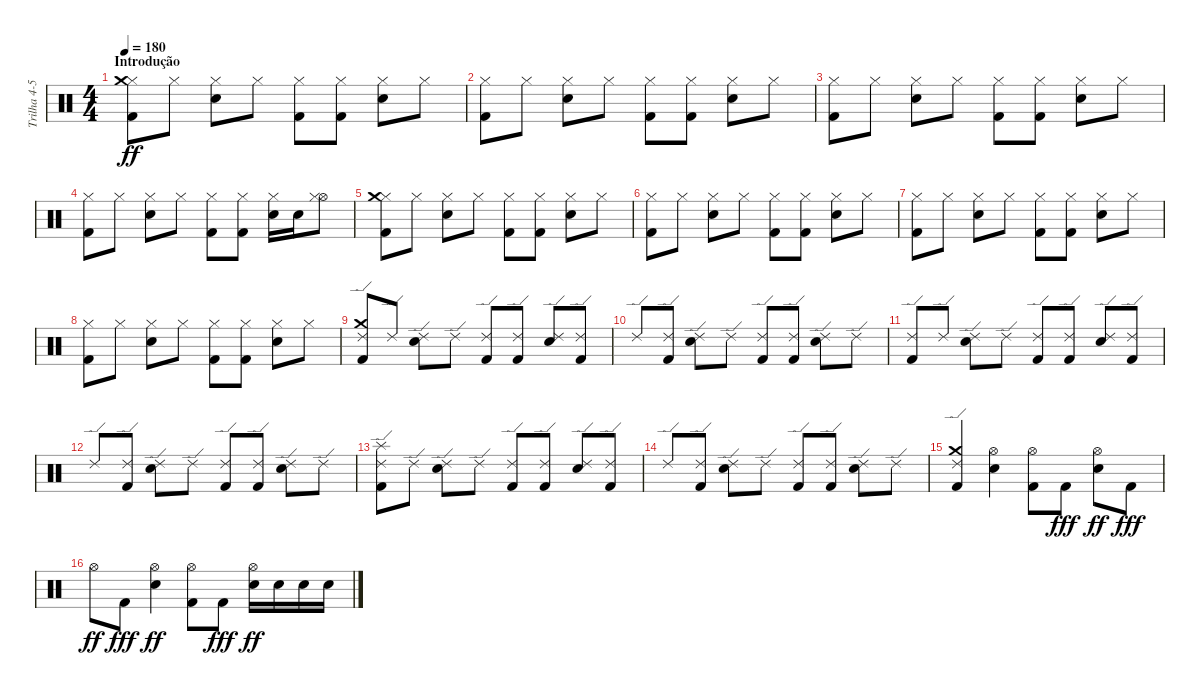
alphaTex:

\track ("Trilha 4-5" "Trilha 4-5") {instrument percussion}
\staff {score}
\articulation defaults
\ts (4 4)
\section ("" "Introdução")
\tempo 180
\clef neutral
\ks c
("Kick (hit) 2" "Hi-Hat (closed)" "Crash medium (hit)").8{dy ff} "Hi-Hat (closed)".8 ("Snare (hit) 2" "Hi-Hat (closed)").8 "Hi-Hat (closed)".8 ("Kick (hit) 2" "Hi-Hat (closed)").8 ("Kick (hit) 2" "Hi-Hat (closed)").8 ("Snare (hit) 2" "Hi-Hat (closed)").8 "Hi-Hat (closed)".8 |
("Kick (hit) 2" "Hi-Hat (closed)").8 "Hi-Hat (closed)".8 ("Snare (hit) 2" "Hi-Hat (closed)").8 "Hi-Hat (closed)".8 ("Kick (hit) 2" "Hi-Hat (closed)").8 ("Kick (hit) 2" "Hi-Hat (closed)").8 ("Snare (hit) 2" "Hi-Hat (closed)").8 "Hi-Hat (closed)".8 |
("Kick (hit) 2" "Hi-Hat (closed)").8 "Hi-Hat (closed)".8 ("Snare (hit) 2" "Hi-Hat (closed)").8 "Hi-Hat (closed)".8 ("Kick (hit) 2" "Hi-Hat (closed)").8 ("Kick (hit) 2" "Hi-Hat (closed)").8 ("Snare (hit) 2" "Hi-Hat (closed)").8 "Hi-Hat (closed)".8 |
("Kick (hit) 2" "Hi-Hat (closed)").8 "Hi-Hat (closed)".8 ("Snare (hit) 2" "Hi-Hat (closed)").8 "Hi-Hat (closed)".8 ("Kick (hit) 2" "Hi-Hat (closed)").8 ("Kick (hit) 2" "Hi-Hat (closed)").8 ("Snare (hit) 2" "Hi-Hat (closed)").16 "Snare (hit) 2".16 ("Hi-Hat (open)" "Hi-Hat (closed)").8 |
("Kick (hit) 2" "Hi-Hat (closed)" "Crash medium (hit)").8 "Hi-Hat (closed)".8 ("Snare (hit) 2" "Hi-Hat (closed)").8 "Hi-Hat (closed)".8 ("Kick (hit) 2" "Hi-Hat (closed)").8 ("Kick (hit) 2" "Hi-Hat (closed)").8 ("Snare (hit) 2" "Hi-Hat (closed)").8 "Hi-Hat (closed)".8 |
("Kick (hit) 2" "Hi-Hat (closed)").8 "Hi-Hat (closed)".8 ("Snare (hit) 2" "Hi-Hat (closed)").8 "Hi-Hat (closed)".8 ("Kick (hit) 2" "Hi-Hat (closed)").8 ("Kick (hit) 2" "Hi-Hat (closed)").8 ("Snare (hit) 2" "Hi-Hat (closed)").8 "Hi-Hat (closed)".8 |
("Kick (hit) 2" "Hi-Hat (closed)").8 "Hi-Hat (closed)".8 ("Snare (hit) 2" "Hi-Hat (closed)").8 "Hi-Hat (closed)".8 ("Kick (hit) 2" "Hi-Hat (closed)").8 ("Kick (hit) 2" "Hi-Hat (closed)").8 ("Snare (hit) 2" "Hi-Hat (closed)").8 "Hi-Hat (closed)".8 |
("Kick (hit) 2" "Hi-Hat (closed)").8 "Hi-Hat (closed)".8 ("Snare (hit) 2" "Hi-Hat (closed)").8 "Hi-Hat (closed)".8 ("Kick (hit) 2" "Hi-Hat (closed)").8 ("Kick (hit) 2" "Hi-Hat (closed)").8 ("Snare (hit) 2" "Hi-Hat (closed)").8 "Hi-Hat (closed)".8 |
("Kick (hit) 2" "Crash medium (hit)" "Ride (edge) 2").8 "Ride (edge) 2".8 ("Snare (hit) 2" "Ride (edge) 2").8 "Ride (edge) 2".8 ("Kick (hit) 2" "Ride (edge) 2").8 ("Kick (hit) 2" "Ride (edge) 2").8 ("Snare (hit) 2" "Ride (edge) 2").8 ("Kick (hit) 2" "Ride (edge) 2").8 |
"Ride (edge) 2".8 ("Kick (hit) 2" "Ride (edge) 2").8 ("Snare (hit) 2" "Ride (edge) 2").8 "Ride (edge) 2".8 ("Kick (hit) 2" "Ride (edge) 2").8 ("Kick (hit) 2" "Ride (edge) 2").8 ("Snare (hit) 2" "Ride (edge) 2").8 "Ride (edge) 2".8 |
("Kick (hit) 2" "Ride (edge) 2").8 "Ride (edge) 2".8 ("Snare (hit) 2" "Ride (edge) 2").8 "Ride (edge) 2".8 ("Kick (hit) 2" "Ride (edge) 2").8 ("Kick (hit) 2" "Ride (edge) 2").8 ("Snare (hit) 2" "Ride (edge) 2").8 ("Kick (hit) 2" "Ride (edge) 2").8 |
"Ride (edge) 2".8 ("Kick (hit) 2" "Ride (edge) 2").8 ("Snare (hit) 2" "Ride (edge) 2").8 "Ride (edge) 2".8 ("Kick (hit) 2" "Ride (edge) 2").8 ("Kick (hit) 2" "Ride (edge) 2").8 ("Snare (hit) 2" "Ride (edge) 2").8 "Ride (edge) 2".8 |
("Kick (hit) 2" "Splash (hit)" "Ride (edge) 2").8 "Ride (edge) 2".8 ("Snare (hit) 2" "Ride (edge) 2").8 "Ride (edge) 2".8 ("Kick (hit) 2" "Ride (edge) 2").8 ("Kick (hit) 2" "Ride (edge) 2").8 ("Snare (hit) 2" "Ride (edge) 2").8 ("Kick (hit) 2" "Ride (edge) 2").8 |
"Ride (edge) 2".8 ("Kick (hit) 2" "Ride (edge) 2").8 ("Snare (hit) 2" "Ride (edge) 2").8 "Ride (edge) 2".8 ("Kick (hit) 2" "Ride (edge) 2").8 ("Kick (hit) 2" "Ride (edge) 2").8 ("Snare (hit) 2" "Ride (edge) 2").8 "Ride (edge) 2".8 |
("Kick (hit) 2" "Crash medium (hit)" "Ride (edge) 2").4 ("Snare (hit) 2" "Hi-Hat (open)").4 ("Kick (hit) 2" "Hi-Hat (open)").8 "Kick (hit) 2".8{dy fff} ("Snare (hit) 2" "Hi-Hat (open)").8{dy ff} "Kick (hit) 2".8{dy fff} |
"Hi-Hat (open)".8{dy ff} "Kick (hit) 2".8{dy fff} ("Snare (hit) 2" "Hi-Hat (open)").4{dy ff} ("Kick (hit) 2" "Hi-Hat (open)").8 "Kick (hit) 2".8{dy fff} ("Snare (hit) 2" "Hi-Hat (open)").16{dy ff} "Snare (hit) 2".16 "Snare (hit) 2".16 "Snare (hit) 2".16
